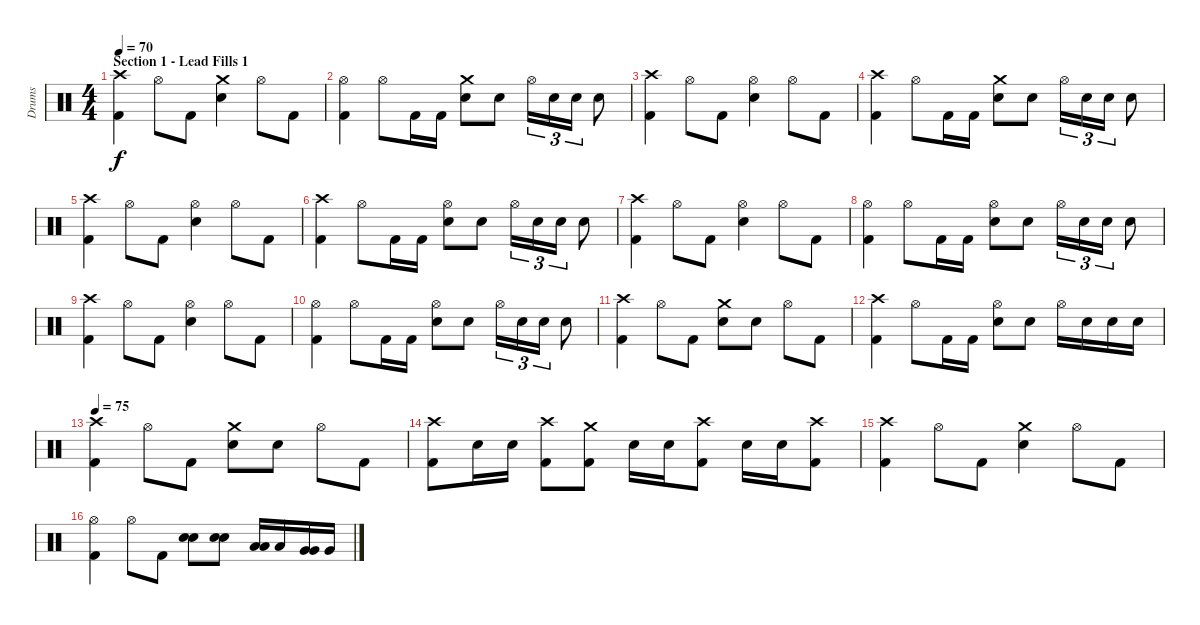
\track ("Drums" "Drums") {instrument percussion}
\staff {score}
\articulation defaults
\ts (4 4)
\section ("" "Section 1 - Lead Fills 1")
\tempo 70
\clef neutral
\ks c
("Crash high (hit)" "Kick (hit) 2").4{dy f} "Hi-Hat (open)".8 "Kick (hit) 2".8 ("Crash medium (hit)" "Electric Snare (hit)").4 "Hi-Hat (open)".8 "Kick (hit) 2".8 |
("Hi-Hat (open)" "Kick (hit) 2").4 "Hi-Hat (open)".8 "Kick (hit) 2".16 "Kick (hit) 2".16 ("Crash medium (hit)" "Electric Snare (hit)").8 "Electric Snare (hit)".8 "Hi-Hat (open)".16{tu (3 2)} "Electric Snare (hit)".16{tu (3 2)} "Electric Snare (hit)".16{tu (3 2)} "Electric Snare (hit)".8 |
("Crash high (hit)" "Kick (hit) 2").4 "Hi-Hat (open)".8 "Kick (hit) 2".8 ("Hi-Hat (open)" "Electric Snare (hit)").4 "Hi-Hat (open)".8 "Kick (hit) 2".8 |
("Crash high (hit)" "Kick (hit) 2").4 "Hi-Hat (open)".8 "Kick (hit) 2".16 "Kick (hit) 2".16 ("Crash medium (hit)" "Electric Snare (hit)").8 "Electric Snare (hit)".8 "Hi-Hat (open)".16{tu (3 2)} "Electric Snare (hit)".16{tu (3 2)} "Electric Snare (hit)".16{tu (3 2)} "Electric Snare (hit)".8 |
("Crash high (hit)" "Kick (hit) 2").4 "Hi-Hat (open)".8 "Kick (hit) 2".8 ("Hi-Hat (open)" "Electric Snare (hit)").4 "Hi-Hat (open)".8 "Kick (hit) 2".8 |
("Crash high (hit)" "Kick (hit) 2").4 "Hi-Hat (open)".8 "Kick (hit) 2".16 "Kick (hit) 2".16 ("Hi-Hat (open)" "Electric Snare (hit)").8 "Electric Snare (hit)".8 "Hi-Hat (open)".16{tu (3 2)} "Electric Snare (hit)".16{tu (3 2)} "Electric Snare (hit)".16{tu (3 2)} "Electric Snare (hit)".8 |
("Crash high (hit)" "Kick (hit) 2").4 "Hi-Hat (open)".8 "Kick (hit) 2".8 ("Hi-Hat (open)" "Electric Snare (hit)").4 "Hi-Hat (open)".8 "Kick (hit) 2".8 |
("Hi-Hat (open)" "Kick (hit) 2").4 "Hi-Hat (open)".8 "Kick (hit) 2".16 "Kick (hit) 2".16 ("Hi-Hat (open)" "Electric Snare (hit)").8 "Electric Snare (hit)".8 "Hi-Hat (open)".16{tu (3 2)} "Electric Snare (hit)".16{tu (3 2)} "Electric Snare (hit)".16{tu (3 2)} "Electric Snare (hit)".8 |
("Crash high (hit)" "Kick (hit) 2").4 "Hi-Hat (open)".8 "Kick (hit) 2".8 ("Hi-Hat (open)" "Electric Snare (hit)").4 "Hi-Hat (open)".8 "Kick (hit) 2".8 |
("Hi-Hat (open)" "Kick (hit) 2").4 "Hi-Hat (open)".8 "Kick (hit) 2".16 "Kick (hit) 2".16 ("Hi-Hat (open)" "Electric Snare (hit)").8 "Electric Snare (hit)".8 "Hi-Hat (open)".16{tu (3 2)} "Electric Snare (hit)".16{tu (3 2)} "Electric Snare (hit)".16{tu (3 2)} "Electric Snare (hit)".8 |
("Crash high (hit)" "Kick (hit) 2").4 "Hi-Hat (open)".8 "Kick (hit) 2".8 ("Crash medium (hit)" "Electric Snare (hit)").8 "Electric Snare (hit)".8 "Hi-Hat (open)".8 "Kick (hit) 2".8 |
("Crash high (hit)" "Kick (hit) 2").4 "Hi-Hat (open)".8 "Kick (hit) 2".16 "Kick (hit) 2".16 ("Hi-Hat (open)" "Electric Snare (hit)").8 "Electric Snare (hit)".8 "Hi-Hat (open)".16 "Electric Snare (hit)".16 "Electric Snare (hit)".16 "Electric Snare (hit)".16 |
\tempo 75
("Crash high (hit)" "Kick (hit) 2").4 "Hi-Hat (open)".8 "Kick (hit) 2".8 ("Crash medium (hit)" "Electric Snare (hit)").8 "Electric Snare (hit)".8 "Hi-Hat (open)".8 "Kick (hit) 2".8 |
("Crash high (hit)" "Kick (hit) 2").8 "Electric Snare (hit)".16 "Electric Snare (hit)".16 ("Crash high (hit)" "Kick (hit) 2").8 ("Crash medium (hit)" "Kick (hit) 2").8 "Electric Snare (hit)".16 "Electric Snare (hit)".16 ("Crash high (hit)" "Kick (hit) 2").8 "Electric Snare (hit)".16 "Electric Snare (hit)".16 ("Crash high (hit)" "Kick (hit) 2").8 |
("Crash high (hit)" "Kick (hit) 2").4 "Hi-Hat (open)".8 "Kick (hit) 2".8 ("Crash medium (hit)" "Electric Snare (hit)").4 "Hi-Hat (open)".8 "Kick (hit) 2".8 |
("Hi-Hat (open)" "Kick (hit) 2").4 "Hi-Hat (open)".8 "Kick (hit) 2".8 ("Electric Snare (hit)" "Electric Snare (hit)").8{bu 30} ("Electric Snare (hit)" "Electric Snare (hit)").8{bu 60} ("Low Tom (hit)" "Low Tom (hit)").16{bu 60} "Low Tom (hit)".16 ("Very Low Tom (hit)" "Very Low Tom (hit)").16{bu 60} "Very Low Tom (hit)".16
